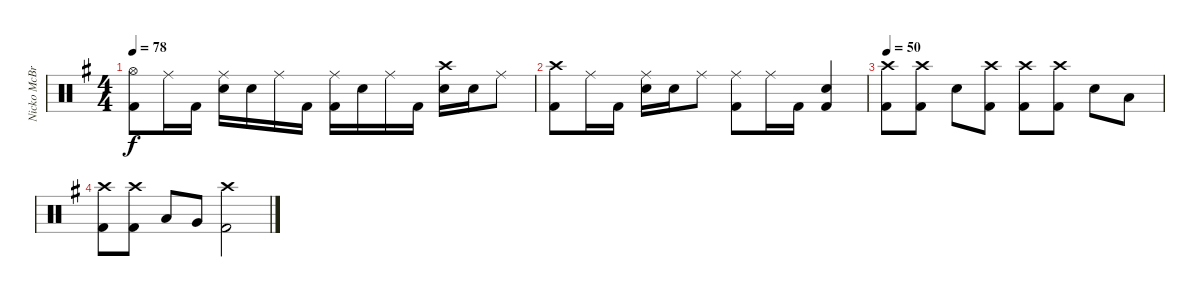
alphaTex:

\track ("Nicko McBrain" "Nicko McBr") {instrument percussion}
\staff {score}
\articulation defaults
\ts (4 4)
\tempo 78
\clef neutral
\ks g
("Hi-Hat (open)" "Kick (hit) 2").8{dy f} "Ride (middle)".16 "Kick (hit) 2".16 ("Ride (middle)" "Electric Snare (hit)").16 "Electric Snare (hit)".16 "Ride (middle)".16 "Kick (hit) 2".16 ("Ride (middle)" "Kick (hit) 2").16 "Electric Snare (hit)".16 "Ride (middle)".16 "Kick (hit) 2".16 ("Crash high (hit)" "Electric Snare (hit)").16 "Electric Snare (hit)".16 "Ride (middle)".8 |
("Crash high (hit)" "Kick (hit) 2").8 "Ride (middle)".16 "Kick (hit) 2".16 ("Ride (middle)" "Electric Snare (hit)").16 "Electric Snare (hit)".16 "Ride (middle)".8 ("Ride (middle)" "Kick (hit) 2").8 "Ride (middle)".16 "Kick (hit) 2".16 ("Electric Snare (hit)" "Kick (hit) 2").4 |
\tempo 50
("Crash high (hit)" "Kick (hit) 2").8 ("Crash high (hit)" "Kick (hit) 2").8 "Electric Snare (hit)".8 ("Crash high (hit)" "Kick (hit) 2").8 ("Crash high (hit)" "Kick (hit) 2").8 ("Crash high (hit)" "Kick (hit) 2").8 "Electric Snare (hit)".8 "Low Tom (hit)".8 |
("Crash high (hit)" "Kick (hit) 2").8 ("Crash high (hit)" "Kick (hit) 2").8 "Low Tom (hit)".8 "Very Low Tom (hit)".8 ("Crash high (hit)" "Kick (hit) 2").2
